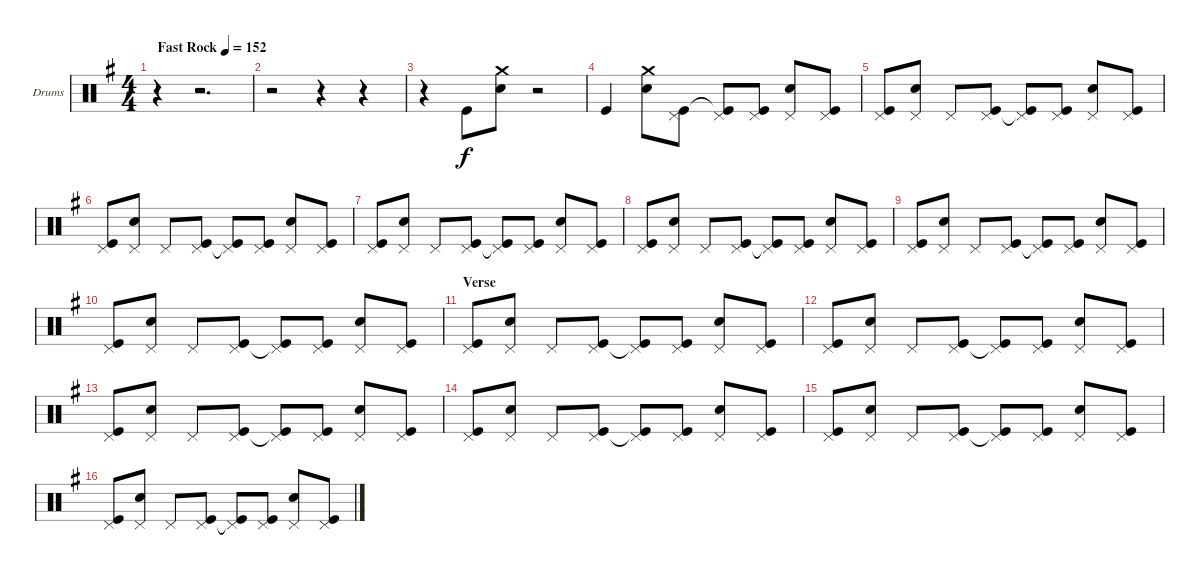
\defaultSystemsLayout 4
\bracketExtendMode groupsimilarinstruments
\firstSystemTrackNameOrientation horizontal
\otherSystemsTrackNameOrientation horizontal
\track ("Drumkit" "Drums") {instrument percussion}
\staff {score}
\articulation defaults
\ts (4 4)
\tempo (152 "Fast Rock")
\clef neutral
\scale
1.14628
\ks g
r.4{dy f} r.2{d} |
\scale
0.92686 r.2 r.4 r.4 |
\scale
0.92686 r.4 "Kick (hit)".8 ("Snare (hit) 2" "Crash medium (hit)").8 r.2 |
\scale
1.08575 "Kick (hit)".4 ("Snare (hit) 2" "Crash medium (hit)").8 ("Kick (hit)" "Pedal Hi-Hat (hit)").8 ("Kick (hit)"{t} "Pedal Hi-Hat (hit)").8 ("Kick (hit)" "Pedal Hi-Hat (hit)").8 ("Snare (hit) 2" "Pedal Hi-Hat (hit)").8 ("Kick (hit)" "Pedal Hi-Hat (hit)").8 |
\scale
0.957125 ("Kick (hit)" "Pedal Hi-Hat (hit)").8 ("Snare (hit) 2" "Pedal Hi-Hat (hit)").8 "Pedal Hi-Hat (hit)".8 ("Kick (hit)" "Pedal Hi-Hat (hit)").8 ("Kick (hit)"{t} "Pedal Hi-Hat (hit)").8 ("Kick (hit)" "Pedal Hi-Hat (hit)").8 ("Snare (hit) 2" "Pedal Hi-Hat (hit)").8 ("Kick (hit)" "Pedal Hi-Hat (hit)").8 |
\scale
0.957125 ("Kick (hit)" "Pedal Hi-Hat (hit)").8 ("Snare (hit) 2" "Pedal Hi-Hat (hit)").8 "Pedal Hi-Hat (hit)".8 ("Kick (hit)" "Pedal Hi-Hat (hit)").8 ("Kick (hit)"{t} "Pedal Hi-Hat (hit)").8 ("Kick (hit)" "Pedal Hi-Hat (hit)").8 ("Snare (hit) 2" "Pedal Hi-Hat (hit)").8 ("Kick (hit)" "Pedal Hi-Hat (hit)").8 |
\scale
1.08575 ("Kick (hit)" "Pedal Hi-Hat (hit)").8 ("Snare (hit) 2" "Pedal Hi-Hat (hit)").8 "Pedal Hi-Hat (hit)".8 ("Kick (hit)" "Pedal Hi-Hat (hit)").8 ("Kick (hit)"{t} "Pedal Hi-Hat (hit)").8 ("Kick (hit)" "Pedal Hi-Hat (hit)").8 ("Snare (hit) 2" "Pedal Hi-Hat (hit)").8 ("Kick (hit)" "Pedal Hi-Hat (hit)").8 |
\scale
0.957125 ("Kick (hit)" "Pedal Hi-Hat (hit)").8 ("Snare (hit) 2" "Pedal Hi-Hat (hit)").8 "Pedal Hi-Hat (hit)".8 ("Kick (hit)" "Pedal Hi-Hat (hit)").8 ("Kick (hit)"{t} "Pedal Hi-Hat (hit)").8 ("Kick (hit)" "Pedal Hi-Hat (hit)").8 ("Snare (hit) 2" "Pedal Hi-Hat (hit)").8 ("Kick (hit)" "Pedal Hi-Hat (hit)").8 |
\scale
0.957125 ("Kick (hit)" "Pedal Hi-Hat (hit)").8 ("Snare (hit) 2" "Pedal Hi-Hat (hit)").8 "Pedal Hi-Hat (hit)".8 ("Kick (hit)" "Pedal Hi-Hat (hit)").8 ("Kick (hit)"{t} "Pedal Hi-Hat (hit)").8 ("Kick (hit)" "Pedal Hi-Hat (hit)").8 ("Snare (hit) 2" "Pedal Hi-Hat (hit)").8 ("Kick (hit)" "Pedal Hi-Hat (hit)").8 |
\scale
1.08575 ("Kick (hit)" "Pedal Hi-Hat (hit)").8 ("Snare (hit) 2" "Pedal Hi-Hat (hit)").8 "Pedal Hi-Hat (hit)".8 ("Kick (hit)" "Pedal Hi-Hat (hit)").8 ("Kick (hit)"{t} "Pedal Hi-Hat (hit)").8 ("Kick (hit)" "Pedal Hi-Hat (hit)").8 ("Snare (hit) 2" "Pedal Hi-Hat (hit)").8 ("Kick (hit)" "Pedal Hi-Hat (hit)").8 |
\section ("" "Verse")
\scale
0.957125 ("Kick (hit)" "Pedal Hi-Hat (hit)").8 ("Snare (hit) 2" "Pedal Hi-Hat (hit)").8 "Pedal Hi-Hat (hit)".8 ("Kick (hit)" "Pedal Hi-Hat (hit)").8 ("Kick (hit)"{t} "Pedal Hi-Hat (hit)").8 ("Kick (hit)" "Pedal Hi-Hat (hit)").8 ("Snare (hit) 2" "Pedal Hi-Hat (hit)").8 ("Kick (hit)" "Pedal Hi-Hat (hit)").8 |
\scale
0.957125 ("Kick (hit)" "Pedal Hi-Hat (hit)").8 ("Snare (hit) 2" "Pedal Hi-Hat (hit)").8 "Pedal Hi-Hat (hit)".8 ("Kick (hit)" "Pedal Hi-Hat (hit)").8 ("Kick (hit)"{t} "Pedal Hi-Hat (hit)").8 ("Kick (hit)" "Pedal Hi-Hat (hit)").8 ("Snare (hit) 2" "Pedal Hi-Hat (hit)").8 ("Kick (hit)" "Pedal Hi-Hat (hit)").8 |
\scale
1.08575 ("Kick (hit)" "Pedal Hi-Hat (hit)").8 ("Snare (hit) 2" "Pedal Hi-Hat (hit)").8 "Pedal Hi-Hat (hit)".8 ("Kick (hit)" "Pedal Hi-Hat (hit)").8 ("Kick (hit)"{t} "Pedal Hi-Hat (hit)").8 ("Kick (hit)" "Pedal Hi-Hat (hit)").8 ("Snare (hit) 2" "Pedal Hi-Hat (hit)").8 ("Kick (hit)" "Pedal Hi-Hat (hit)").8 |
\scale
0.957125 ("Kick (hit)" "Pedal Hi-Hat (hit)").8 ("Snare (hit) 2" "Pedal Hi-Hat (hit)").8 "Pedal Hi-Hat (hit)".8 ("Kick (hit)" "Pedal Hi-Hat (hit)").8 ("Kick (hit)"{t} "Pedal Hi-Hat (hit)").8 ("Kick (hit)" "Pedal Hi-Hat (hit)").8 ("Snare (hit) 2" "Pedal Hi-Hat (hit)").8 ("Kick (hit)" "Pedal Hi-Hat (hit)").8 |
\scale
0.957125 ("Kick (hit)" "Pedal Hi-Hat (hit)").8 ("Snare (hit) 2" "Pedal Hi-Hat (hit)").8 "Pedal Hi-Hat (hit)".8 ("Kick (hit)" "Pedal Hi-Hat (hit)").8 ("Kick (hit)"{t} "Pedal Hi-Hat (hit)").8 ("Kick (hit)" "Pedal Hi-Hat (hit)").8 ("Snare (hit) 2" "Pedal Hi-Hat (hit)").8 ("Kick (hit)" "Pedal Hi-Hat (hit)").8 |
\scale
1.08575 ("Kick (hit)" "Pedal Hi-Hat (hit)").8 ("Snare (hit) 2" "Pedal Hi-Hat (hit)").8 "Pedal Hi-Hat (hit)".8 ("Kick (hit)" "Pedal Hi-Hat (hit)").8 ("Kick (hit)"{t} "Pedal Hi-Hat (hit)").8 ("Kick (hit)" "Pedal Hi-Hat (hit)").8 ("Snare (hit) 2" "Pedal Hi-Hat (hit)").8 ("Kick (hit)" "Pedal Hi-Hat (hit)").8
